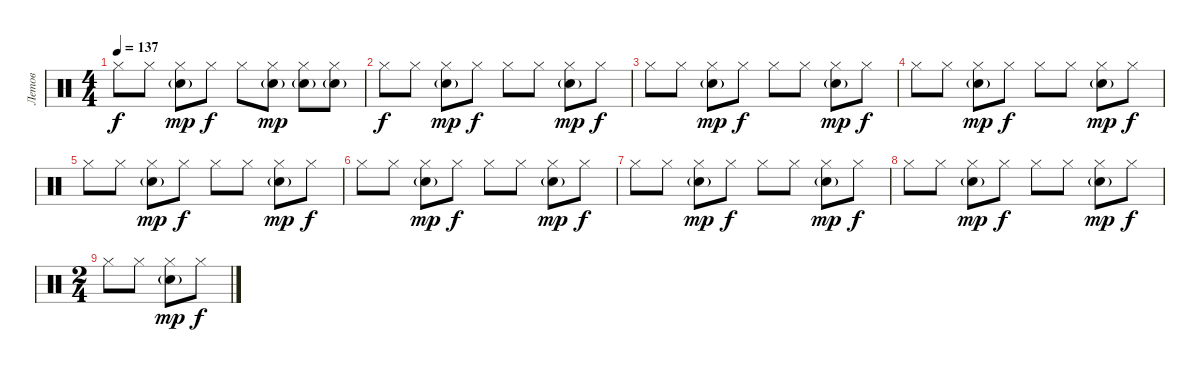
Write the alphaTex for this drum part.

\track ("Летов" "Летов") {instrument percussion}
\staff {score}
\articulation defaults
\ts (4 4)
\tempo 137
\clef neutral
\ks c "Hi-Hat (closed)".8{dy f} "Hi-Hat (closed)".8
("Hi-Hat (closed)" "Electric Snare (hit)"{g}).8{dy mp} "Hi-Hat (closed)".8{dy f} "Hi-Hat (closed)".8 ("Hi-Hat (closed)" "Electric Snare (hit)"{g}).8{dy mp} ("Hi-Hat (closed)" "Electric Snare (hit)"{g}).8 ("Hi-Hat (closed)" "Electric Snare (hit)"{g}).8 |
"Hi-Hat (closed)".8{dy f} "Hi-Hat (closed)".8 ("Hi-Hat (closed)" "Electric Snare (hit)"{g}).8{dy mp} "Hi-Hat (closed)".8{dy f} "Hi-Hat (closed)".8 "Hi-Hat (closed)".8 ("Hi-Hat (closed)" "Electric Snare (hit)"{g}).8{dy mp} "Hi-Hat (closed)".8{dy f} |
"Hi-Hat (closed)".8 "Hi-Hat (closed)".8 ("Hi-Hat (closed)" "Electric Snare (hit)"{g}).8{dy mp} "Hi-Hat (closed)".8{dy f} "Hi-Hat (closed)".8 "Hi-Hat (closed)".8 ("Hi-Hat (closed)" "Electric Snare (hit)"{g}).8{dy mp} "Hi-Hat (closed)".8{dy f} |
"Hi-Hat (closed)".8 "Hi-Hat (closed)".8 ("Hi-Hat (closed)" "Electric Snare (hit)"{g}).8{dy mp} "Hi-Hat (closed)".8{dy f} "Hi-Hat (closed)".8 "Hi-Hat (closed)".8 ("Hi-Hat (closed)" "Electric Snare (hit)"{g}).8{dy mp} "Hi-Hat (closed)".8{dy f} |
"Hi-Hat (closed)".8 "Hi-Hat (closed)".8 ("Hi-Hat (closed)" "Electric Snare (hit)"{g}).8{dy mp} "Hi-Hat (closed)".8{dy f} "Hi-Hat (closed)".8 "Hi-Hat (closed)".8 ("Hi-Hat (closed)" "Electric Snare (hit)"{g}).8{dy mp} "Hi-Hat (closed)".8{dy f} |
"Hi-Hat (closed)".8 "Hi-Hat (closed)".8 ("Hi-Hat (closed)" "Electric Snare (hit)"{g}).8{dy mp} "Hi-Hat (closed)".8{dy f} "Hi-Hat (closed)".8 "Hi-Hat (closed)".8 ("Hi-Hat (closed)" "Electric Snare (hit)"{g}).8{dy mp} "Hi-Hat (closed)".8{dy f} |
"Hi-Hat (closed)".8 "Hi-Hat (closed)".8 ("Hi-Hat (closed)" "Electric Snare (hit)"{g}).8{dy mp} "Hi-Hat (closed)".8{dy f} "Hi-Hat (closed)".8 "Hi-Hat (closed)".8 ("Hi-Hat (closed)" "Electric Snare (hit)"{g}).8{dy mp} "Hi-Hat (closed)".8{dy f} |
"Hi-Hat (closed)".8 "Hi-Hat (closed)".8 ("Hi-Hat (closed)" "Electric Snare (hit)"{g}).8{dy mp} "Hi-Hat (closed)".8{dy f} "Hi-Hat (closed)".8 "Hi-Hat (closed)".8 ("Hi-Hat (closed)" "Electric Snare (hit)"{g}).8{dy mp} "Hi-Hat (closed)".8{dy f} |
\ts (2 4)
"Hi-Hat (closed)".8 "Hi-Hat (closed)".8 ("Hi-Hat (closed)" "Electric Snare (hit)"{g}).8{dy mp} "Hi-Hat (closed)".8{dy f}
